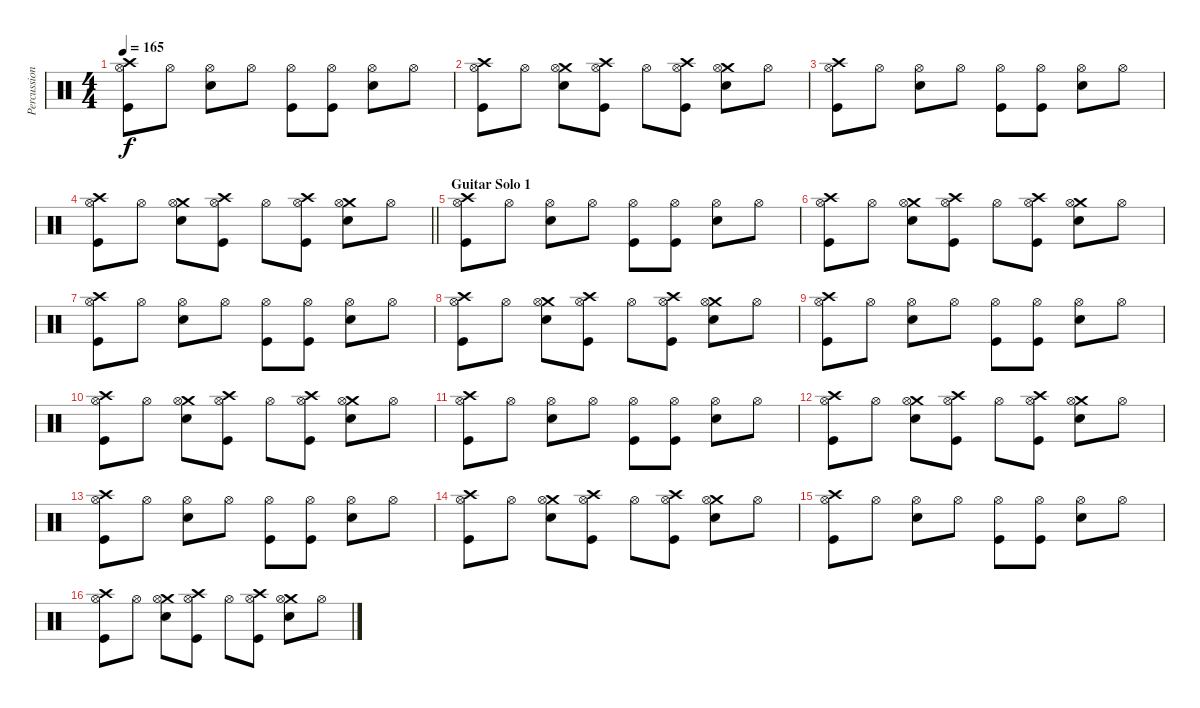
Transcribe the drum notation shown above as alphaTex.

\track ("Percussion" "Percussion") {instrument percussion}
\staff {score}
\articulation defaults
\ts (4 4)
\tempo 165
\clef neutral
\ks c
("Crash high (hit)" "Hi-Hat (open)" "Kick (hit)").8{dy f} "Hi-Hat (open)".8 ("Hi-Hat (open)" "Snare (hit) 2").8 "Hi-Hat (open)".8 ("Hi-Hat (open)" "Kick (hit)").8 ("Hi-Hat (open)" "Kick (hit)").8 ("Hi-Hat (open)" "Snare (hit) 2").8 "Hi-Hat (open)".8 |
("Crash high (hit)" "Hi-Hat (open)" "Kick (hit)").8 "Hi-Hat (open)".8 ("Crash medium (hit)" "Hi-Hat (open)" "Snare (hit) 2").8 ("Crash high (hit)" "Hi-Hat (open)" "Kick (hit)").8 "Hi-Hat (open)".8 ("Crash high (hit)" "Hi-Hat (open)" "Kick (hit)").8 ("Crash medium (hit)" "Hi-Hat (open)" "Snare (hit) 2").8 "Hi-Hat (open)".8 |
("Crash high (hit)" "Hi-Hat (open)" "Kick (hit)").8 "Hi-Hat (open)".8 ("Hi-Hat (open)" "Snare (hit) 2").8 "Hi-Hat (open)".8 ("Hi-Hat (open)" "Kick (hit)").8 ("Hi-Hat (open)" "Kick (hit)").8 ("Hi-Hat (open)" "Snare (hit) 2").8 "Hi-Hat (open)".8 |
\barLineRight lightlight
("Crash high (hit)" "Hi-Hat (open)" "Kick (hit)").8 "Hi-Hat (open)".8 ("Crash medium (hit)" "Hi-Hat (open)" "Snare (hit) 2").8 ("Crash high (hit)" "Hi-Hat (open)" "Kick (hit)").8 "Hi-Hat (open)".8 ("Crash high (hit)" "Hi-Hat (open)" "Kick (hit)").8 ("Crash medium (hit)" "Hi-Hat (open)" "Snare (hit) 2").8 "Hi-Hat (open)".8 |
\section ("" "Guitar Solo 1")
("Crash high (hit)" "Hi-Hat (open)" "Kick (hit)").8 "Hi-Hat (open)".8 ("Hi-Hat (open)" "Snare (hit) 2").8 "Hi-Hat (open)".8 ("Hi-Hat (open)" "Kick (hit)").8 ("Hi-Hat (open)" "Kick (hit)").8 ("Hi-Hat (open)" "Snare (hit) 2").8 "Hi-Hat (open)".8 |
("Crash high (hit)" "Hi-Hat (open)" "Kick (hit)").8 "Hi-Hat (open)".8 ("Crash medium (hit)" "Hi-Hat (open)" "Snare (hit) 2").8 ("Crash high (hit)" "Hi-Hat (open)" "Kick (hit)").8 "Hi-Hat (open)".8 ("Crash high (hit)" "Hi-Hat (open)" "Kick (hit)").8 ("Crash medium (hit)" "Hi-Hat (open)" "Snare (hit) 2").8 "Hi-Hat (open)".8 |
("Crash high (hit)" "Hi-Hat (open)" "Kick (hit)").8 "Hi-Hat (open)".8 ("Hi-Hat (open)" "Snare (hit) 2").8 "Hi-Hat (open)".8 ("Hi-Hat (open)" "Kick (hit)").8 ("Hi-Hat (open)" "Kick (hit)").8 ("Hi-Hat (open)" "Snare (hit) 2").8 "Hi-Hat (open)".8 |
("Crash high (hit)" "Hi-Hat (open)" "Kick (hit)").8 "Hi-Hat (open)".8 ("Crash medium (hit)" "Hi-Hat (open)" "Snare (hit) 2").8 ("Crash high (hit)" "Hi-Hat (open)" "Kick (hit)").8 "Hi-Hat (open)".8 ("Crash high (hit)" "Hi-Hat (open)" "Kick (hit)").8 ("Crash medium (hit)" "Hi-Hat (open)" "Snare (hit) 2").8 "Hi-Hat (open)".8 |
("Crash high (hit)" "Hi-Hat (open)" "Kick (hit)").8 "Hi-Hat (open)".8 ("Hi-Hat (open)" "Snare (hit) 2").8 "Hi-Hat (open)".8 ("Hi-Hat (open)" "Kick (hit)").8 ("Hi-Hat (open)" "Kick (hit)").8 ("Hi-Hat (open)" "Snare (hit) 2").8 "Hi-Hat (open)".8 |
("Crash high (hit)" "Hi-Hat (open)" "Kick (hit)").8 "Hi-Hat (open)".8 ("Crash medium (hit)" "Hi-Hat (open)" "Snare (hit) 2").8 ("Crash high (hit)" "Hi-Hat (open)" "Kick (hit)").8 "Hi-Hat (open)".8 ("Crash high (hit)" "Hi-Hat (open)" "Kick (hit)").8 ("Crash medium (hit)" "Hi-Hat (open)" "Snare (hit) 2").8 "Hi-Hat (open)".8 |
("Crash high (hit)" "Hi-Hat (open)" "Kick (hit)").8 "Hi-Hat (open)".8 ("Hi-Hat (open)" "Snare (hit) 2").8 "Hi-Hat (open)".8 ("Hi-Hat (open)" "Kick (hit)").8 ("Hi-Hat (open)" "Kick (hit)").8 ("Hi-Hat (open)" "Snare (hit) 2").8 "Hi-Hat (open)".8 |
("Crash high (hit)" "Hi-Hat (open)" "Kick (hit)").8 "Hi-Hat (open)".8 ("Crash medium (hit)" "Hi-Hat (open)" "Snare (hit) 2").8 ("Crash high (hit)" "Hi-Hat (open)" "Kick (hit)").8 "Hi-Hat (open)".8 ("Crash high (hit)" "Hi-Hat (open)" "Kick (hit)").8 ("Crash medium (hit)" "Hi-Hat (open)" "Snare (hit) 2").8 "Hi-Hat (open)".8 |
("Crash high (hit)" "Hi-Hat (open)" "Kick (hit)").8 "Hi-Hat (open)".8 ("Hi-Hat (open)" "Snare (hit) 2").8 "Hi-Hat (open)".8 ("Hi-Hat (open)" "Kick (hit)").8 ("Hi-Hat (open)" "Kick (hit)").8 ("Hi-Hat (open)" "Snare (hit) 2").8 "Hi-Hat (open)".8 |
("Crash high (hit)" "Hi-Hat (open)" "Kick (hit)").8 "Hi-Hat (open)".8 ("Crash medium (hit)" "Hi-Hat (open)" "Snare (hit) 2").8 ("Crash high (hit)" "Hi-Hat (open)" "Kick (hit)").8 "Hi-Hat (open)".8 ("Crash high (hit)" "Hi-Hat (open)" "Kick (hit)").8 ("Crash medium (hit)" "Hi-Hat (open)" "Snare (hit) 2").8 "Hi-Hat (open)".8 |
("Crash high (hit)" "Hi-Hat (open)" "Kick (hit)").8 "Hi-Hat (open)".8 ("Hi-Hat (open)" "Snare (hit) 2").8 "Hi-Hat (open)".8 ("Hi-Hat (open)" "Kick (hit)").8 ("Hi-Hat (open)" "Kick (hit)").8 ("Hi-Hat (open)" "Snare (hit) 2").8 "Hi-Hat (open)".8 |
("Crash high (hit)" "Hi-Hat (open)" "Kick (hit)").8 "Hi-Hat (open)".8 ("Crash medium (hit)" "Hi-Hat (open)" "Snare (hit) 2").8 ("Crash high (hit)" "Hi-Hat (open)" "Kick (hit)").8 "Hi-Hat (open)".8 ("Crash high (hit)" "Hi-Hat (open)" "Kick (hit)").8 ("Crash medium (hit)" "Hi-Hat (open)" "Snare (hit) 2").8 "Hi-Hat (open)".8
